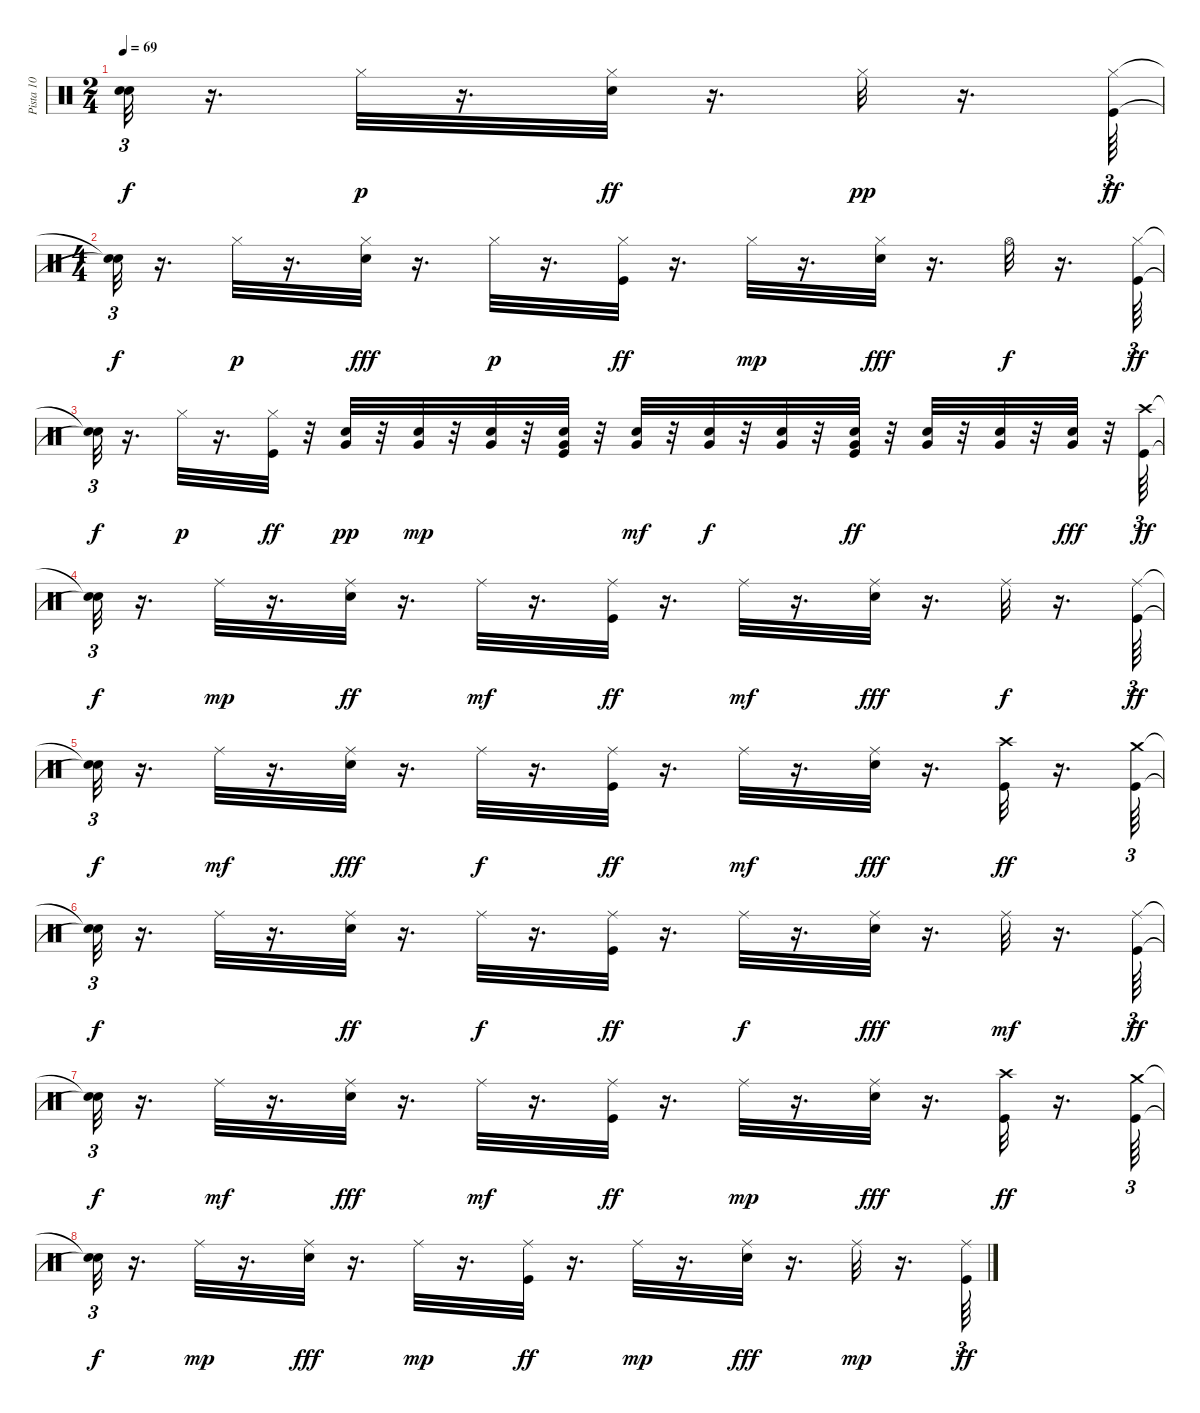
\track ("Pista 10" "Pista 10") {instrument percussion}
\staff {score}
\articulation defaults
\ts (2 4)
\tempo 69
\clef neutral
\ks c
("Snare (hit)"{t} "Snare (hit)"{t}).32{tu (3 2) dy f} r.16{d} "Hi-Hat (closed)".32{dy p} r.16{d} ("Snare (hit) 2" "Hi-Hat (closed)").32{dy ff} r.16{d} "Hi-Hat (closed)".32{dy pp} r.16{d} ("Hi-Hat (closed)" "Kick (hit)").64{tu (3 2) dy ff} |
\ts (4 4)
("Snare (hit)"{t} "Snare (hit)"{t}).32{tu (3 2) dy f} r.16{d} "Hi-Hat (closed)".32{dy p} r.16{d} ("Hi-Hat (closed)" "Snare (hit) 2").32{dy fff} r.16{d} "Hi-Hat (closed)".32{dy p} r.16{d} ("Hi-Hat (closed)" "Kick (hit)").32{dy ff} r.16{d} "Hi-Hat (closed)".32{dy mp} r.16{d} ("Hi-Hat (closed)" "Snare (hit) 2").32{dy fff} r.16{d} "Hi-Hat (open)".32{dy f} r.16{d} ("Hi-Hat (closed)" "Kick (hit)").64{tu (3 2) dy ff} |
("Snare (hit)"{t} "Snare (hit)"{t}).32{tu (3 2) dy f} r.16{d} "Hi-Hat (closed)".32{dy p} r.16{d} ("Kick (hit)" "Hi-Hat (closed)").32{dy ff} r.32 ("Snare (hit) 2" "Very Low Tom (hit)").32{dy pp} r.32 ("Very Low Tom (hit)" "Snare (hit) 2").32{dy mp} r.32 ("Very Low Tom (hit)" "Snare (hit) 2").32 r.32 ("Snare (hit) 2" "Kick (hit)" "Very Low Tom (hit)").32 r.32 ("Very Low Tom (hit)" "Snare (hit) 2").32{dy mf} r.32 ("Snare (hit) 2" "Very Low Tom (hit)").32{dy f} r.32 ("Snare (hit) 2" "Very Low Tom (hit)").32 r.32 ("Snare (hit) 2" "Kick (hit)" "Very Low Tom (hit)").32{dy ff} r.32 ("Snare (hit) 2" "Very Low Tom (hit)").32 r.32 ("Snare (hit) 2" "Very Low Tom (hit)").32 r.32 ("Snare (hit) 2" "Very Low Tom (hit)").32{dy fff} r.32 ("Crash high (hit)" "Kick (hit)").64{tu (3 2) dy ff} |
("Snare (hit)"{t} "Snare (hit)"{t}).32{tu (3 2) dy f} r.16{d} "Ride (middle)".32{dy mp} r.16{d} ("Snare (hit) 2" "Ride (middle)").32{dy ff} r.16{d} "Ride (middle)".32{dy mf} r.16{d} ("Ride (middle)" "Kick (hit)").32{dy ff} r.16{d} "Ride (middle)".32{dy mf} r.16{d} ("Ride (middle)" "Snare (hit) 2").32{dy fff} r.16{d} "Ride (middle)".32{dy f} r.16{d} ("Ride (middle)" "Kick (hit)").64{tu (3 2) dy ff} |
("Snare (hit)"{t} "Snare (hit)"{t}).32{tu (3 2) dy f} r.16{d} "Ride (middle)".32{dy mf} r.16{d} ("Ride (middle)" "Snare (hit) 2").32{dy fff} r.16{d} "Ride (middle)".32{dy f} r.16{d} ("Ride (middle)" "Kick (hit)").32{dy ff} r.16{d} "Ride (middle)".32{dy mf} r.16{d} ("Ride (middle)" "Snare (hit) 2").32{dy fff} r.16{d} ("Crash high (hit)" "Kick (hit)").32{dy ff} r.16{d} ("Crash medium (hit)" "Kick (hit)").64{tu (3 2)} |
("Snare (hit)"{t} "Snare (hit)"{t}).32{tu (3 2) dy f} r.16{d} "Ride (middle)".32 r.16{d} ("Snare (hit) 2" "Ride (middle)").32{dy ff} r.16{d} "Ride (middle)".32{dy f} r.16{d} ("Ride (middle)" "Kick (hit)").32{dy ff} r.16{d} "Ride (middle)".32{dy f} r.16{d} ("Ride (middle)" "Snare (hit) 2").32{dy fff} r.16{d} "Ride (middle)".32{dy mf} r.16{d} ("Ride (middle)" "Kick (hit)").64{tu (3 2) dy ff} |
("Snare (hit)"{t} "Snare (hit)"{t}).32{tu (3 2) dy f} r.16{d} "Ride (middle)".32{dy mf} r.16{d} ("Ride (middle)" "Snare (hit) 2").32{dy fff} r.16{d} "Ride (middle)".32{dy mf} r.16{d} ("Ride (middle)" "Kick (hit)").32{dy ff} r.16{d} "Ride (middle)".32{dy mp} r.16{d} ("Ride (middle)" "Snare (hit) 2").32{dy fff} r.16{d} ("Crash high (hit)" "Kick (hit)").32{dy ff} r.16{d} ("Crash medium (hit)" "Kick (hit)").64{tu (3 2)} |
("Snare (hit)"{t} "Snare (hit)"{t}).32{tu (3 2) dy f} r.16{d} "Ride (middle)".32{dy mp} r.16{d} ("Ride (middle)" "Snare (hit) 2").32{dy fff} r.16{d} "Ride (middle)".32{dy mp} r.16{d} ("Ride (middle)" "Kick (hit)").32{dy ff} r.16{d} "Ride (middle)".32{dy mp} r.16{d} ("Ride (middle)" "Snare (hit) 2").32{dy fff} r.16{d} "Ride (middle)".32{dy mp} r.16{d} ("Ride (middle)" "Kick (hit)").64{tu (3 2) dy ff}
